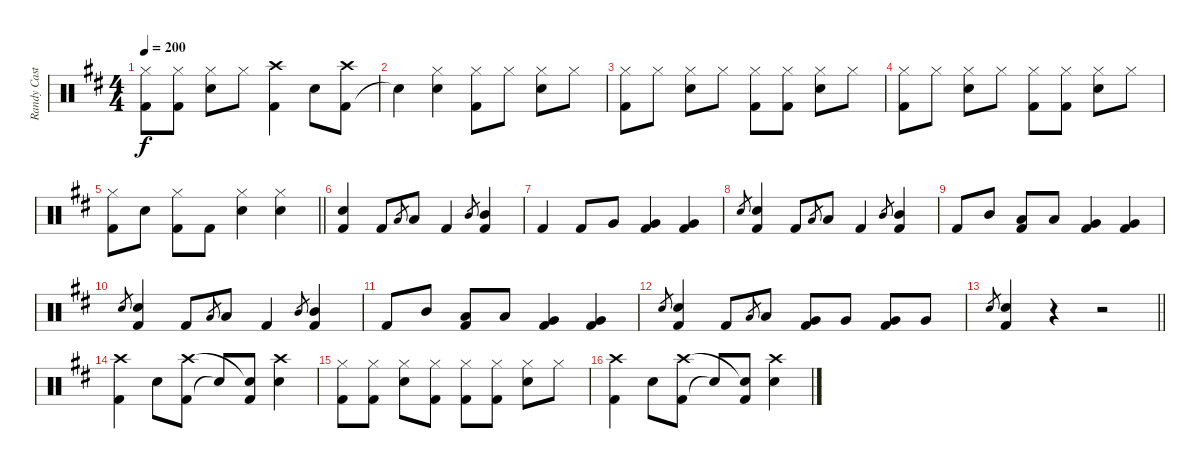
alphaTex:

\track ("Randy Castillo" "Randy Cast") {instrument percussion}
\staff {score}
\articulation defaults
\ts (4 4)
\tempo 200
\clef neutral
\ks d
("Hi-Hat (closed)" "Kick (hit) 2").8{dy f} ("Hi-Hat (closed)" "Kick (hit) 2").8 ("Hi-Hat (closed)" "Snare (hit) 2").8 "Hi-Hat (closed)".8 ("Kick (hit) 2" "Crash high (hit)").4 "Snare (hit) 2".8 ("Kick (hit) 2" "Crash high (hit)").8 |
"Snare (hit)"{t}.4 ("Hi-Hat (closed)" "Snare (hit) 2").4 ("Hi-Hat (closed)" "Kick (hit) 2").8 "Hi-Hat (closed)".8 ("Hi-Hat (closed)" "Snare (hit) 2").8 "Hi-Hat (closed)".8 |
("Hi-Hat (closed)" "Kick (hit) 2").8 "Hi-Hat (closed)".8 ("Hi-Hat (closed)" "Snare (hit) 2").8 "Hi-Hat (closed)".8 ("Hi-Hat (closed)" "Kick (hit) 2").8 ("Hi-Hat (closed)" "Kick (hit) 2").8 ("Hi-Hat (closed)" "Snare (hit) 2").8 "Hi-Hat (closed)".8 |
("Hi-Hat (closed)" "Kick (hit) 2").8 "Hi-Hat (closed)".8 ("Hi-Hat (closed)" "Snare (hit) 2").8 "Hi-Hat (closed)".8 ("Hi-Hat (closed)" "Kick (hit) 2").8 ("Hi-Hat (closed)" "Kick (hit) 2").8 ("Hi-Hat (closed)" "Snare (hit) 2").8 "Hi-Hat (closed)".8 |
\barLineRight lightlight
("Hi-Hat (closed)" "Kick (hit) 2").8 "Snare (hit) 2".8 ("Hi-Hat (closed)" "Kick (hit) 2").8 "Kick (hit) 2".8 ("Hi-Hat (closed)" "Snare (hit) 2").4 ("Hi-Hat (closed)" "Snare (hit) 2").4 |
("Snare (hit) 2" "Kick (hit) 2").4 "Kick (hit) 2".8 "Low Tom (hit)".8{gr} "Low Tom (hit)".8 "Kick (hit) 2".4 "Mid Tom (hit)".8{gr} ("Mid Tom (hit)" "Kick (hit) 2").4 |
"Kick (hit) 2".4 "Kick (hit) 2".8 "Very Low Tom (hit)".8 ("Very Low Tom (hit)" "Kick (hit) 2").4 ("Very Low Tom (hit)" "Kick (hit) 2").4 |
"Snare (hit) 2".8{gr} ("Snare (hit) 2" "Kick (hit) 2").4 "Kick (hit) 2".8 "Low Tom (hit)".8{gr} "Low Tom (hit)".8 "Kick (hit) 2".4 "Mid Tom (hit)".8{gr} ("Mid Tom (hit)" "Kick (hit) 2").4 |
"Kick (hit) 2".8 "Mid Tom (hit)".8 ("Low Tom (hit)" "Kick (hit) 2").8 "Low Tom (hit)".8 ("Very Low Tom (hit)" "Kick (hit) 2").4 ("Very Low Tom (hit)" "Kick (hit) 2").4 |
"Snare (hit) 2".8{gr} ("Snare (hit) 2" "Kick (hit) 2").4 "Kick (hit) 2".8 "Low Tom (hit)".8{gr} "Low Tom (hit)".8 "Kick (hit) 2".4 "Mid Tom (hit)".8{gr} ("Mid Tom (hit)" "Kick (hit) 2").4 |
"Kick (hit) 2".8 "Mid Tom (hit)".8 ("Low Tom (hit)" "Kick (hit) 2").8 "Low Tom (hit)".8 ("Very Low Tom (hit)" "Kick (hit) 2").4 ("Very Low Tom (hit)" "Kick (hit) 2").4 |
"Snare (hit) 2".8{gr} ("Snare (hit) 2" "Kick (hit) 2").4 "Kick (hit) 2".8 "Low Tom (hit)".8{gr} "Low Tom (hit)".8 ("Very Low Tom (hit)" "Kick (hit) 2").8 "Very Low Tom (hit)".8 ("Very Low Tom (hit)" "Kick (hit) 2").8 "Very Low Tom (hit)".8 |
\barLineRight lightlight "Snare (hit) 2".8{gr}
("Snare (hit) 2" "Kick (hit) 2").4 r.4 r.2 |
("Kick (hit) 2" "Crash high (hit)").4 "Snare (hit) 2".8 ("Kick (hit) 2" "Crash high (hit)").8 "Snare (hit)"{t}.8 ("Kick (hit) 2" "Snare (hit)"{t}).8 ("Snare (hit) 2" "Crash high (hit)").4 |
("Hi-Hat (closed)" "Kick (hit) 2").8 ("Hi-Hat (closed)" "Kick (hit) 2").8 ("Hi-Hat (closed)" "Snare (hit) 2").8 ("Hi-Hat (closed)" "Kick (hit) 2").8 ("Hi-Hat (closed)" "Kick (hit) 2").8 ("Hi-Hat (closed)" "Kick (hit) 2").8 ("Hi-Hat (closed)" "Snare (hit) 2").8 "Hi-Hat (closed)".8 |
("Kick (hit) 2" "Crash high (hit)").4 "Snare (hit) 2".8 ("Kick (hit) 2" "Crash high (hit)").8 "Snare (hit)"{t}.8 ("Kick (hit) 2" "Snare (hit)"{t}).8 ("Snare (hit) 2" "Crash high (hit)").4
